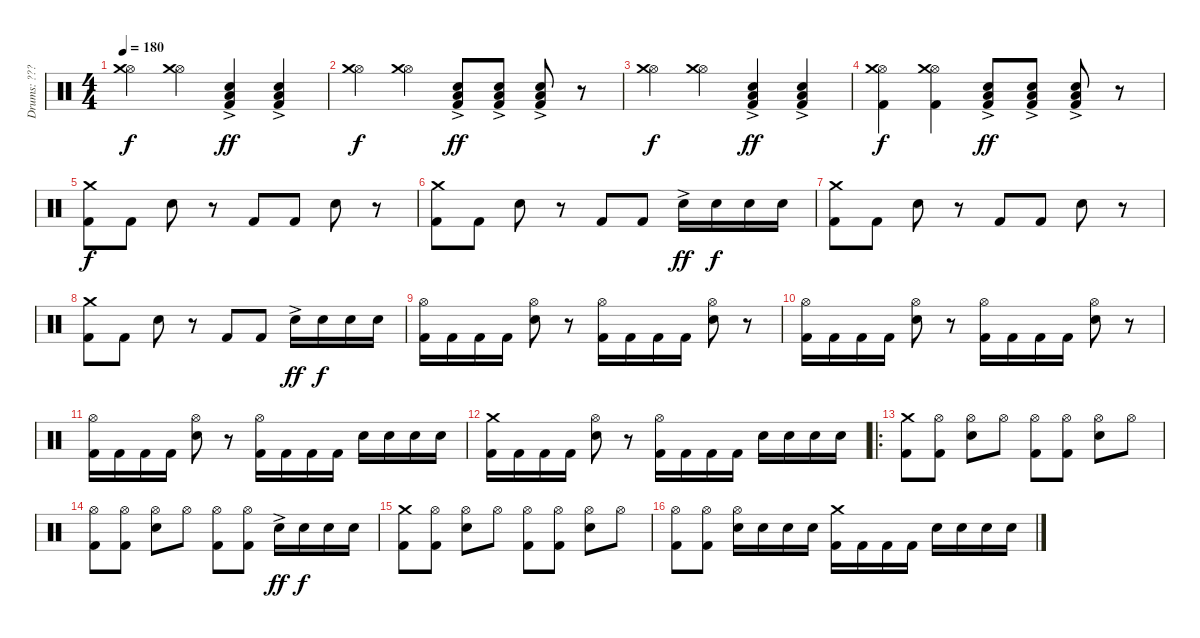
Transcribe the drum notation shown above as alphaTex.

\track ("Drums: ???" "Drums: ???") {instrument percussion}
\staff {score}
\articulation defaults
\ts (4 4)
\tempo 180
\clef neutral
\ks c
("Hi-Hat (open)" "Crash medium (hit)").4{dy f} ("Hi-Hat (open)" "Crash medium (hit)").4 ("Snare (hit) 2"{ac} "Low Tom (hit)" "Kick (hit) 2").4{dy ff} ("Snare (hit) 2"{ac} "Low Tom (hit)" "Kick (hit) 2").4 |
("Hi-Hat (open)" "Crash medium (hit)").4{dy f} ("Hi-Hat (open)" "Crash medium (hit)").4 ("Snare (hit) 2"{ac} "Low Tom (hit)" "Kick (hit) 2").8{dy ff} ("Snare (hit) 2"{ac} "Low Tom (hit)" "Kick (hit) 2").8 ("Snare (hit) 2"{ac} "Low Tom (hit)" "Kick (hit) 2").8 r.8 |
("Hi-Hat (open)" "Crash medium (hit)").4{dy f} ("Hi-Hat (open)" "Crash medium (hit)").4 ("Snare (hit) 2"{ac} "Low Tom (hit)" "Kick (hit) 2").4{dy ff} ("Snare (hit) 2"{ac} "Low Tom (hit)" "Kick (hit) 2").4 |
("Hi-Hat (open)" "Crash medium (hit)" "Kick (hit) 2").4{dy f} ("Hi-Hat (open)" "Crash medium (hit)" "Kick (hit) 2").4 ("Snare (hit) 2"{ac} "Low Tom (hit)" "Kick (hit) 2").8{dy ff} ("Snare (hit) 2"{ac} "Low Tom (hit)" "Kick (hit) 2").8 ("Snare (hit) 2"{ac} "Low Tom (hit)" "Kick (hit) 2").8 r.8 |
("Crash medium (hit)" "Kick (hit) 2").8{dy f} "Kick (hit) 2".8 "Snare (hit) 2".8 r.8 "Kick (hit) 2".8 "Kick (hit) 2".8 "Snare (hit) 2".8 r.8 |
("Crash medium (hit)" "Kick (hit) 2").8 "Kick (hit) 2".8 "Snare (hit) 2".8 r.8 "Kick (hit) 2".8 "Kick (hit) 2".8 "Snare (hit) 2"{ac}.16{dy ff} "Snare (hit) 2".16{dy f} "Snare (hit) 2".16 "Snare (hit) 2".16 |
("Crash medium (hit)" "Kick (hit) 2").8 "Kick (hit) 2".8 "Snare (hit) 2".8 r.8 "Kick (hit) 2".8 "Kick (hit) 2".8 "Snare (hit) 2".8 r.8 |
("Crash medium (hit)" "Kick (hit) 2").8 "Kick (hit) 2".8 "Snare (hit) 2".8 r.8 "Kick (hit) 2".8 "Kick (hit) 2".8 "Snare (hit) 2"{ac}.16{dy ff} "Snare (hit) 2".16{dy f} "Snare (hit) 2".16 "Snare (hit) 2".16 |
("Hi-Hat (open)" "Kick (hit) 2").16 "Kick (hit) 2".16 "Kick (hit) 2".16 "Kick (hit) 2".16 ("Electric Snare (hit)" "Hi-Hat (open)").8 r.8 ("Kick (hit) 2" "Hi-Hat (open)").16 "Kick (hit) 2".16 "Kick (hit) 2".16 "Kick (hit) 2".16 ("Electric Snare (hit)" "Hi-Hat (open)").8 r.8 |
("Hi-Hat (open)" "Kick (hit) 2").16 "Kick (hit) 2".16 "Kick (hit) 2".16 "Kick (hit) 2".16 ("Electric Snare (hit)" "Hi-Hat (open)").8 r.8 ("Kick (hit) 2" "Hi-Hat (open)").16 "Kick (hit) 2".16 "Kick (hit) 2".16 "Kick (hit) 2".16 ("Electric Snare (hit)" "Hi-Hat (open)").8 r.8 |
("Hi-Hat (open)" "Kick (hit) 2").16 "Kick (hit) 2".16 "Kick (hit) 2".16 "Kick (hit) 2".16 ("Electric Snare (hit)" "Hi-Hat (open)").8 r.8 ("Kick (hit) 2" "Hi-Hat (open)").16 "Kick (hit) 2".16 "Kick (hit) 2".16 "Kick (hit) 2".16 "Electric Snare (hit)".16 "Electric Snare (hit)".16 "Electric Snare (hit)".16 "Electric Snare (hit)".16 |
("Crash medium (hit)" "Kick (hit) 2").16 "Kick (hit) 2".16 "Kick (hit) 2".16 "Kick (hit) 2".16 ("Electric Snare (hit)" "Hi-Hat (open)").8 r.8 ("Kick (hit) 2" "Hi-Hat (open)").16 "Kick (hit) 2".16 "Kick (hit) 2".16 "Kick (hit) 2".16 "Electric Snare (hit)".16 "Electric Snare (hit)".16 "Electric Snare (hit)".16 "Electric Snare (hit)".16 |
\ro
("Crash medium (hit)" "Kick (hit) 2").8 ("Hi-Hat (open)" "Kick (hit) 2").8 ("Hi-Hat (open)" "Snare (hit) 2").8 "Hi-Hat (open)".8 ("Hi-Hat (open)" "Kick (hit) 2").8 ("Hi-Hat (open)" "Kick (hit) 2").8 ("Hi-Hat (open)" "Snare (hit) 2").8 "Hi-Hat (open)".8 |
("Hi-Hat (open)" "Kick (hit) 2").8 ("Hi-Hat (open)" "Kick (hit) 2").8 ("Hi-Hat (open)" "Snare (hit) 2").8 "Hi-Hat (open)".8 ("Hi-Hat (open)" "Kick (hit) 2").8 ("Hi-Hat (open)" "Kick (hit) 2").8 "Snare (hit) 2"{ac}.16{dy ff} "Snare (hit) 2".16{dy f} "Snare (hit) 2".16 "Snare (hit) 2".16 |
("Crash medium (hit)" "Kick (hit) 2").8 ("Hi-Hat (open)" "Kick (hit) 2").8 ("Hi-Hat (open)" "Snare (hit) 2").8 "Hi-Hat (open)".8 ("Hi-Hat (open)" "Kick (hit) 2").8 ("Hi-Hat (open)" "Kick (hit) 2").8 ("Hi-Hat (open)" "Snare (hit) 2").8 "Hi-Hat (open)".8 |
("Hi-Hat (open)" "Kick (hit) 2").8 ("Hi-Hat (open)" "Kick (hit) 2").8 ("Hi-Hat (open)" "Snare (hit) 2").16 "Snare (hit) 2".16 "Snare (hit) 2".16 "Snare (hit) 2".16 ("Crash medium (hit)" "Kick (hit) 2").16 "Kick (hit) 2".16 "Kick (hit) 2".16 "Kick (hit) 2".16 "Snare (hit) 2".16 "Snare (hit) 2".16 "Snare (hit) 2".16 "Snare (hit) 2".16
